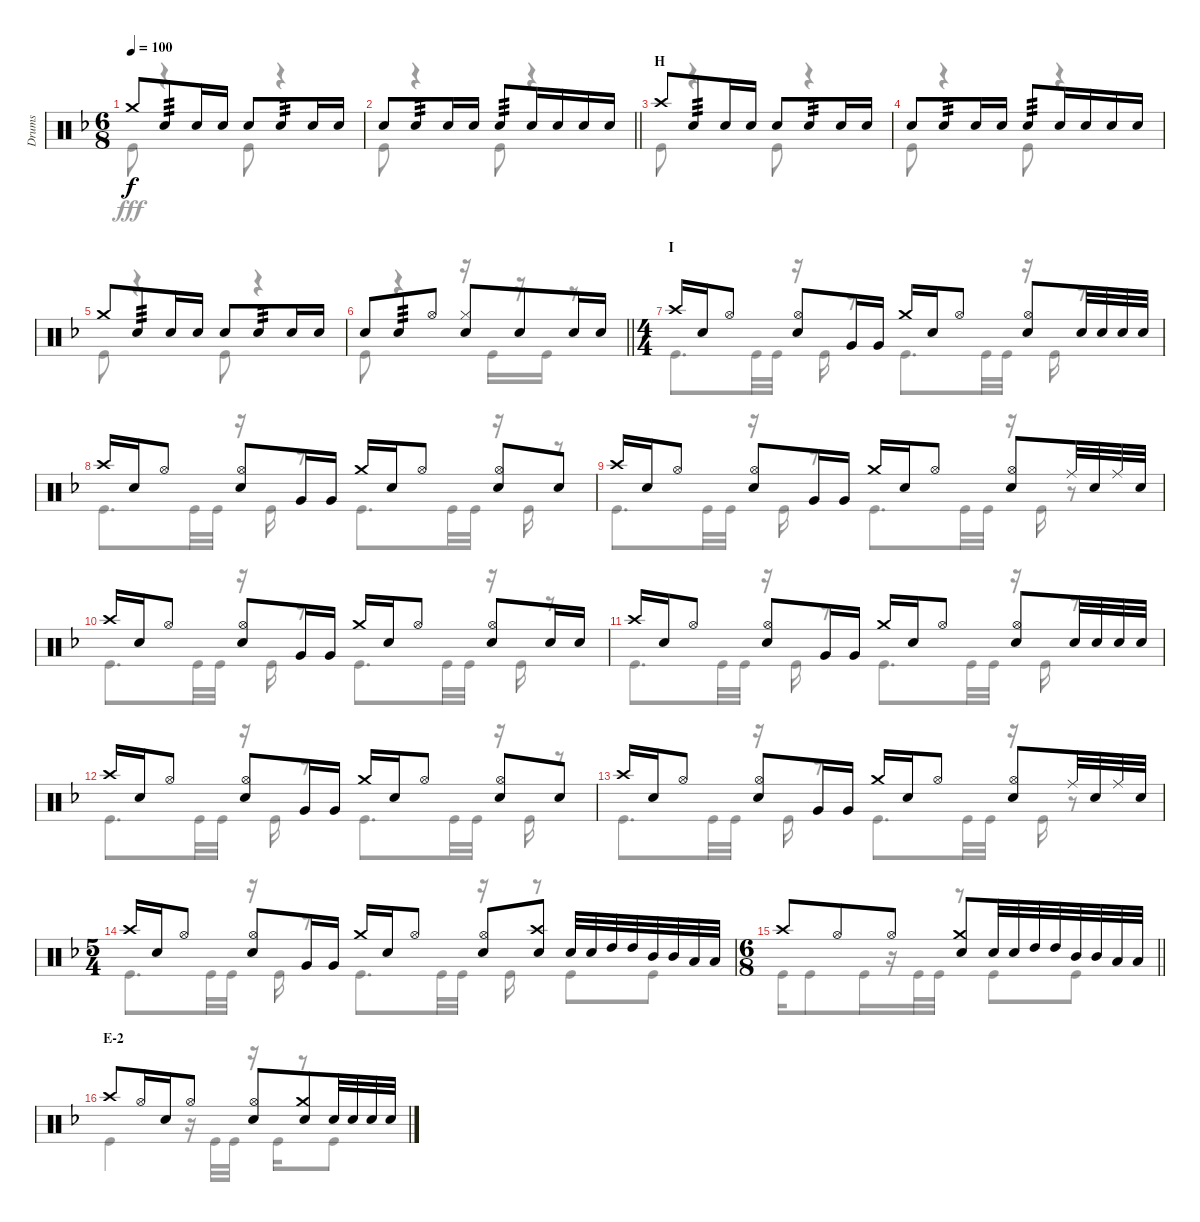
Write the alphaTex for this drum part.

\track ("Drums" "Drums") {instrument percussion}
\staff {score}
\articulation defaults
\voice
\ts (6 8)
\tempo 100
\clef neutral
\ks f "Crash medium (hit)".8{dy f} "Snare (hit) 2".8{tp 3} "Snare (hit) 2".16 "Snare (hit) 2".16 "Snare (hit) 2".8 "Snare (hit) 2".8{tp 3} "Snare (hit) 2".16 "Snare (hit) 2".16
|
\barLineRight lightlight "Snare (hit) 2".8 "Snare (hit) 2".8{tp 3} "Snare (hit) 2".16 "Snare (hit) 2".16 "Snare (hit) 2".8{tp 3} "Snare (hit) 2".16 "Snare (hit) 2".16 "Snare (hit) 2".16 "Snare (hit) 2".16
|
\section ("" "H")
"Crash high (hit)".8 "Snare (hit) 2".8{tp 3} "Snare (hit) 2".16 "Snare (hit) 2".16 "Snare (hit) 2".8 "Snare (hit) 2".8{tp 3} "Snare (hit) 2".16 "Snare (hit) 2".16 |
"Snare (hit) 2".8 "Snare (hit) 2".8{tp 3} "Snare (hit) 2".16 "Snare (hit) 2".16 "Snare (hit) 2".8{tp 3} "Snare (hit) 2".16 "Snare (hit) 2".16 "Snare (hit) 2".16 "Snare (hit) 2".16 |
"Crash medium (hit)".8 "Snare (hit) 2".8{tp 3} "Snare (hit) 2".16 "Snare (hit) 2".16 "Snare (hit) 2".8 "Snare (hit) 2".8{tp 3} "Snare (hit) 2".16 "Snare (hit) 2".16 |
\barLineRight lightlight "Snare (hit) 2".8 "Snare (hit) 2".8{tp 3} "Hi-Hat (open)".8
("Hi-Hat (closed)" "Snare (hit) 2").8 "Snare (hit) 2".8 "Snare (hit) 2".16 "Snare (hit) 2".16 |
\ts (4 4)
\section ("" "I")
"Crash high (hit)".16 "Snare (hit) 2".16 "Hi-Hat (open)".8 ("Hi-Hat (open)" "Snare (hit) 2").8 "Very Low Tom (hit)".16 "Very Low Tom (hit)".16 "Crash medium (hit)".16 "Snare (hit) 2".16 "Hi-Hat (open)".8 ("Hi-Hat (open)" "Snare (hit) 2").8 "Snare (hit) 2".32 "Snare (hit) 2".32 "Snare (hit) 2".32 "Snare (hit) 2".32 |
"Crash high (hit)".16 "Snare (hit) 2".16 "Hi-Hat (open)".8 ("Hi-Hat (open)" "Snare (hit) 2").8 "Very Low Tom (hit)".16 "Very Low Tom (hit)".16 "Crash medium (hit)".16 "Snare (hit) 2".16 "Hi-Hat (open)".8 ("Hi-Hat (open)" "Snare (hit) 2").8 "Snare (hit) 2".8 |
"Crash high (hit)".16 "Snare (hit) 2".16 "Hi-Hat (open)".8 ("Hi-Hat (open)" "Snare (hit) 2").8 "Very Low Tom (hit)".16 "Very Low Tom (hit)".16 "Crash medium (hit)".16 "Snare (hit) 2".16 "Hi-Hat (open)".8 ("Hi-Hat (open)" "Snare (hit) 2").8 "Ride (middle)".32 "Snare (hit) 2".32 "Ride (middle)".32 "Snare (hit) 2".32 |
"Crash high (hit)".16 "Snare (hit) 2".16 "Hi-Hat (open)".8 ("Hi-Hat (open)" "Snare (hit) 2").8 "Very Low Tom (hit)".16 "Very Low Tom (hit)".16 "Crash medium (hit)".16 "Snare (hit) 2".16 "Hi-Hat (open)".8 ("Hi-Hat (open)" "Snare (hit) 2").8 "Snare (hit) 2".16 "Snare (hit) 2".16 |
"Crash high (hit)".16 "Snare (hit) 2".16 "Hi-Hat (open)".8 ("Hi-Hat (open)" "Snare (hit) 2").8 "Very Low Tom (hit)".16 "Very Low Tom (hit)".16 "Crash medium (hit)".16 "Snare (hit) 2".16 "Hi-Hat (open)".8 ("Hi-Hat (open)" "Snare (hit) 2").8 "Snare (hit) 2".32 "Snare (hit) 2".32 "Snare (hit) 2".32 "Snare (hit) 2".32 |
"Crash high (hit)".16 "Snare (hit) 2".16 "Hi-Hat (open)".8 ("Hi-Hat (open)" "Snare (hit) 2").8 "Very Low Tom (hit)".16 "Very Low Tom (hit)".16 "Crash medium (hit)".16 "Snare (hit) 2".16 "Hi-Hat (open)".8 ("Hi-Hat (open)" "Snare (hit) 2").8 "Snare (hit) 2".8 |
"Crash high (hit)".16 "Snare (hit) 2".16 "Hi-Hat (open)".8 ("Hi-Hat (open)" "Snare (hit) 2").8 "Very Low Tom (hit)".16 "Very Low Tom (hit)".16 "Crash medium (hit)".16 "Snare (hit) 2".16 "Hi-Hat (open)".8 ("Hi-Hat (open)" "Snare (hit) 2").8 "Ride (middle)".32 "Snare (hit) 2".32 "Ride (middle)".32 "Snare (hit) 2".32 |
\ts (5 4)
"Crash high (hit)".16 "Snare (hit) 2".16 "Hi-Hat (open)".8 ("Hi-Hat (open)" "Snare (hit) 2").8 "Very Low Tom (hit)".16 "Very Low Tom (hit)".16 "Crash medium (hit)".16 "Snare (hit) 2".16 "Hi-Hat (open)".8 ("Hi-Hat (open)" "Snare (hit) 2").8 ("Crash high (hit)" "Snare (hit) 2").8 "Snare (hit) 2".32 "Snare (hit) 2".32 "High Tom (hit)".32 "High Tom (hit)".32 "Mid Tom (hit)".32 "Mid Tom (hit)".32 "Low Tom (hit)".32 "Low Tom (hit)".32 |
\ts (6 8)
\barLineRight lightlight "Crash high (hit)".8 "Hi-Hat (open)".8 "Hi-Hat (open)".8
("Crash medium (hit)" "Snare (hit) 2").8 "Snare (hit) 2".32 "Snare (hit) 2".32 "High Tom (hit)".32 "High Tom (hit)".32 "Mid Tom (hit)".32 "Mid Tom (hit)".32 "Low Tom (hit)".32 "Low Tom (hit)".32 |
\section ("" "E-2")
"Crash high (hit)".8 "Hi-Hat (open)".16 "Snare (hit) 2".16 "Hi-Hat (open)".8 ("Hi-Hat (open)" "Snare (hit) 2").8 ("Crash medium (hit)" "Snare (hit) 2").8 "Snare (hit) 2".32 "Snare (hit) 2".32 "Snare (hit) 2".32 "Snare (hit) 2".32
\voice
\clef neutral
\ottava regular
\simile none
\ks f "Kick (hit)".8{dy fff}
r.4 "Kick (hit)".8 r.4 |
\barLineRight lightlight "Kick (hit)".8
r.4 "Kick (hit)".8 r.4 |
"Kick (hit)".8 r.4 "Kick (hit)".8 r.4 |
"Kick (hit)".8 r.4 "Kick (hit)".8 r.4 |
"Kick (hit)".8 r.4 "Kick (hit)".8 r.4 |
\barLineRight lightlight "Kick (hit)".8
r.4 r.16 "Kick (hit)".16 r.16 "Kick (hit)".16 r.8 |
"Kick (hit)".8{d} "Kick (hit)".32 "Kick (hit)".32 r.16 "Kick (hit)".16 r.8 "Kick (hit)".8{d} "Kick (hit)".32 "Kick (hit)".32 r.16 "Kick (hit)".16 r.8 |
"Kick (hit)".8{d} "Kick (hit)".32 "Kick (hit)".32 r.16 "Kick (hit)".16 r.8 "Kick (hit)".8{d} "Kick (hit)".32 "Kick (hit)".32 r.16 "Kick (hit)".16 r.8 |
"Kick (hit)".8{d} "Kick (hit)".32 "Kick (hit)".32 r.16 "Kick (hit)".16 r.8 "Kick (hit)".8{d} "Kick (hit)".32 "Kick (hit)".32 r.16 "Kick (hit)".16 r.8 |
"Kick (hit)".8{d} "Kick (hit)".32 "Kick (hit)".32 r.16 "Kick (hit)".16 r.8 "Kick (hit)".8{d} "Kick (hit)".32 "Kick (hit)".32 r.16 "Kick (hit)".16 r.8 |
"Kick (hit)".8{d} "Kick (hit)".32 "Kick (hit)".32 r.16 "Kick (hit)".16 r.8 "Kick (hit)".8{d} "Kick (hit)".32 "Kick (hit)".32 r.16 "Kick (hit)".16 r.8 |
"Kick (hit)".8{d} "Kick (hit)".32 "Kick (hit)".32 r.16 "Kick (hit)".16 r.8 "Kick (hit)".8{d} "Kick (hit)".32 "Kick (hit)".32 r.16 "Kick (hit)".16 r.8 |
"Kick (hit)".8{d} "Kick (hit)".32 "Kick (hit)".32 r.16 "Kick (hit)".16 r.8 "Kick (hit)".8{d} "Kick (hit)".32 "Kick (hit)".32 r.16 "Kick (hit)".16 r.8 |
"Kick (hit)".8{d} "Kick (hit)".32 "Kick (hit)".32 r.16 "Kick (hit)".16 r.8 "Kick (hit)".8{d} "Kick (hit)".32 "Kick (hit)".32 r.16 "Kick (hit)".16 r.8 "Kick (hit)".8 "Kick (hit)".8 |
\barLineRight lightlight "Kick (hit)".16 "Kick (hit)".8 "Kick (hit)".16
r.16 "Kick (hit)".32 "Kick (hit)".32 r.8 "Kick (hit)".8 "Kick (hit)".8 |
"Kick (hit)".4 r.16 "Kick (hit)".32 "Kick (hit)".32 r.16 "Kick (hit)".16 r.8 "Kick (hit)".8
